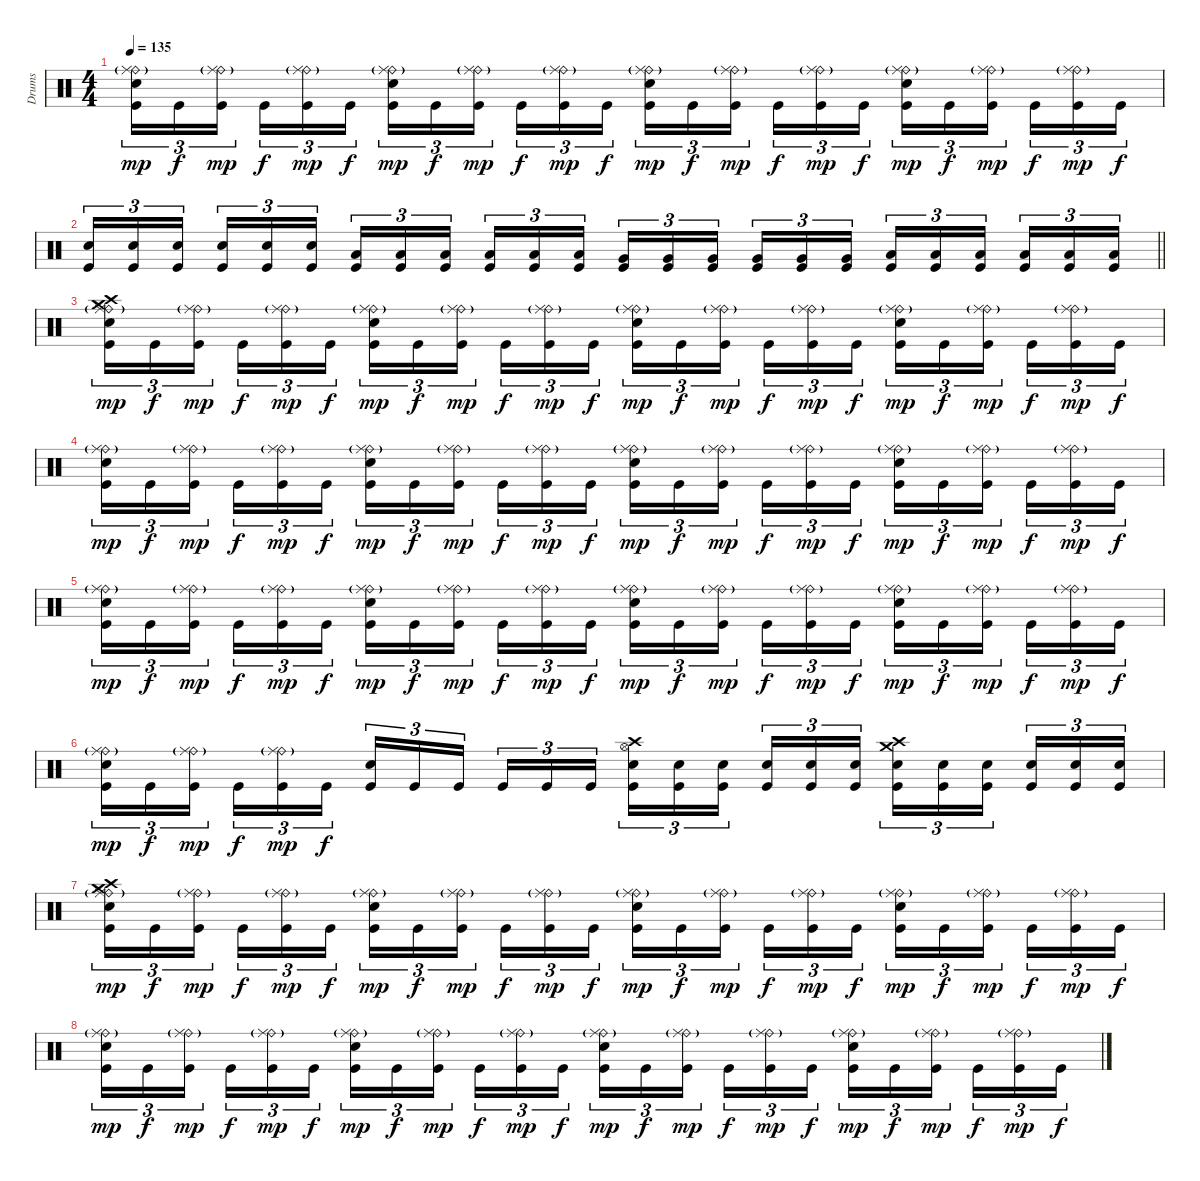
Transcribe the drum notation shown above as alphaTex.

\track ("Drums" "Drums") {instrument percussion}
\staff {score}
\articulation defaults
\ts (4 4)
\tempo 135
\clef neutral
\ks c
("Ride (bell)" "Ride (middle)"{g} "Electric Snare (hit)" "Kick (hit)").16{tu (3 2) dy mp} "Kick (hit)".16{tu (3 2) dy f} ("Ride (bell)" "Ride (middle)"{g} "Kick (hit)").16{tu (3 2) dy mp beam splitsecondary} "Kick (hit)".16{tu (3 2) dy f} ("Ride (bell)" "Ride (middle)"{g} "Kick (hit)").16{tu (3 2) dy mp} "Kick (hit)".16{tu (3 2) dy f} ("Ride (bell)" "Ride (middle)"{g} "Electric Snare (hit)" "Kick (hit)").16{tu (3 2) dy mp} "Kick (hit)".16{tu (3 2) dy f} ("Ride (bell)" "Ride (middle)"{g} "Kick (hit)").16{tu (3 2) dy mp beam splitsecondary} "Kick (hit)".16{tu (3 2) dy f} ("Ride (bell)" "Ride (middle)"{g} "Kick (hit)").16{tu (3 2) dy mp} "Kick (hit)".16{tu (3 2) dy f} ("Ride (bell)" "Ride (middle)"{g} "Electric Snare (hit)" "Kick (hit)").16{tu (3 2) dy mp} "Kick (hit)".16{tu (3 2) dy f} ("Ride (bell)" "Ride (middle)"{g} "Kick (hit)").16{tu (3 2) dy mp beam splitsecondary} "Kick (hit)".16{tu (3 2) dy f} ("Ride (bell)" "Ride (middle)"{g} "Kick (hit)").16{tu (3 2) dy mp} "Kick (hit)".16{tu (3 2) dy f} ("Ride (bell)" "Ride (middle)"{g} "Electric Snare (hit)" "Kick (hit)").16{tu (3 2) dy mp} "Kick (hit)".16{tu (3 2) dy f} ("Ride (bell)" "Ride (middle)"{g} "Kick (hit)").16{tu (3 2) dy mp beam splitsecondary} "Kick (hit)".16{tu (3 2) dy f} ("Ride (bell)" "Ride (middle)"{g} "Kick (hit)").16{tu (3 2) dy mp} "Kick (hit)".16{tu (3 2) dy f} |
\barLineRight lightlight
("Electric Snare (hit)" "Kick (hit)").16{tu (3 2)} ("Electric Snare (hit)" "Kick (hit)").16{tu (3 2)} ("Electric Snare (hit)" "Kick (hit)").16{tu (3 2) beam splitsecondary} ("Electric Snare (hit)" "Kick (hit)").16{tu (3 2)} ("Electric Snare (hit)" "Kick (hit)").16{tu (3 2)} ("Electric Snare (hit)" "Kick (hit)").16{tu (3 2)} ("Low Tom (hit)" "Kick (hit)").16{tu (3 2)} ("Low Tom (hit)" "Kick (hit)").16{tu (3 2)} ("Low Tom (hit)" "Kick (hit)").16{tu (3 2) beam splitsecondary} ("Low Tom (hit)" "Kick (hit)").16{tu (3 2)} ("Low Tom (hit)" "Kick (hit)").16{tu (3 2)} ("Low Tom (hit)" "Kick (hit)").16{tu (3 2)} ("Very Low Tom (hit)" "Kick (hit)").16{tu (3 2)} ("Very Low Tom (hit)" "Kick (hit)").16{tu (3 2)} ("Very Low Tom (hit)" "Kick (hit)").16{tu (3 2) beam splitsecondary} ("Very Low Tom (hit)" "Kick (hit)").16{tu (3 2)} ("Very Low Tom (hit)" "Kick (hit)").16{tu (3 2)} ("Very Low Tom (hit)" "Kick (hit)").16{tu (3 2)} ("Low Floor Tom (hit)" "Kick (hit)").16{tu (3 2)} ("Low Floor Tom (hit)" "Kick (hit)").16{tu (3 2)} ("Low Floor Tom (hit)" "Kick (hit)").16{tu (3 2) beam splitsecondary} ("Low Floor Tom (hit)" "Kick (hit)").16{tu (3 2)} ("Low Floor Tom (hit)" "Kick (hit)").16{tu (3 2)} ("Low Floor Tom (hit)" "Kick (hit)").16{tu (3 2)} |
\section ("" "")
("Crash high (hit)" "Ride (bell)" "Ride (middle)"{g} "Crash medium (hit)" "Electric Snare (hit)" "Kick (hit)").16{tu (3 2) dy mp} "Kick (hit)".16{tu (3 2) dy f} ("Ride (bell)" "Ride (middle)"{g} "Kick (hit)").16{tu (3 2) dy mp beam splitsecondary} "Kick (hit)".16{tu (3 2) dy f} ("Ride (bell)" "Ride (middle)"{g} "Kick (hit)").16{tu (3 2) dy mp} "Kick (hit)".16{tu (3 2) dy f} ("Ride (bell)" "Ride (middle)"{g} "Electric Snare (hit)" "Kick (hit)").16{tu (3 2) dy mp} "Kick (hit)".16{tu (3 2) dy f} ("Ride (bell)" "Ride (middle)"{g} "Kick (hit)").16{tu (3 2) dy mp beam splitsecondary} "Kick (hit)".16{tu (3 2) dy f} ("Ride (bell)" "Ride (middle)"{g} "Kick (hit)").16{tu (3 2) dy mp} "Kick (hit)".16{tu (3 2) dy f} ("Ride (bell)" "Ride (middle)"{g} "Electric Snare (hit)" "Kick (hit)").16{tu (3 2) dy mp} "Kick (hit)".16{tu (3 2) dy f} ("Ride (bell)" "Ride (middle)"{g} "Kick (hit)").16{tu (3 2) dy mp beam splitsecondary} "Kick (hit)".16{tu (3 2) dy f} ("Ride (bell)" "Ride (middle)"{g} "Kick (hit)").16{tu (3 2) dy mp} "Kick (hit)".16{tu (3 2) dy f} ("Ride (bell)" "Ride (middle)"{g} "Electric Snare (hit)" "Kick (hit)").16{tu (3 2) dy mp} "Kick (hit)".16{tu (3 2) dy f} ("Ride (bell)" "Ride (middle)"{g} "Kick (hit)").16{tu (3 2) dy mp beam splitsecondary} "Kick (hit)".16{tu (3 2) dy f} ("Ride (bell)" "Ride (middle)"{g} "Kick (hit)").16{tu (3 2) dy mp} "Kick (hit)".16{tu (3 2) dy f} |
("Ride (bell)" "Ride (middle)"{g} "Electric Snare (hit)" "Kick (hit)").16{tu (3 2) dy mp} "Kick (hit)".16{tu (3 2) dy f} ("Ride (bell)" "Ride (middle)"{g} "Kick (hit)").16{tu (3 2) dy mp beam splitsecondary} "Kick (hit)".16{tu (3 2) dy f} ("Ride (bell)" "Ride (middle)"{g} "Kick (hit)").16{tu (3 2) dy mp} "Kick (hit)".16{tu (3 2) dy f} ("Ride (bell)" "Ride (middle)"{g} "Electric Snare (hit)" "Kick (hit)").16{tu (3 2) dy mp} "Kick (hit)".16{tu (3 2) dy f} ("Ride (bell)" "Ride (middle)"{g} "Kick (hit)").16{tu (3 2) dy mp beam splitsecondary} "Kick (hit)".16{tu (3 2) dy f} ("Ride (bell)" "Ride (middle)"{g} "Kick (hit)").16{tu (3 2) dy mp} "Kick (hit)".16{tu (3 2) dy f} ("Ride (bell)" "Ride (middle)"{g} "Electric Snare (hit)" "Kick (hit)").16{tu (3 2) dy mp} "Kick (hit)".16{tu (3 2) dy f} ("Ride (bell)" "Ride (middle)"{g} "Kick (hit)").16{tu (3 2) dy mp beam splitsecondary} "Kick (hit)".16{tu (3 2) dy f} ("Ride (bell)" "Ride (middle)"{g} "Kick (hit)").16{tu (3 2) dy mp} "Kick (hit)".16{tu (3 2) dy f} ("Ride (bell)" "Ride (middle)"{g} "Electric Snare (hit)" "Kick (hit)").16{tu (3 2) dy mp} "Kick (hit)".16{tu (3 2) dy f} ("Ride (bell)" "Ride (middle)"{g} "Kick (hit)").16{tu (3 2) dy mp beam splitsecondary} "Kick (hit)".16{tu (3 2) dy f} ("Ride (bell)" "Ride (middle)"{g} "Kick (hit)").16{tu (3 2) dy mp} "Kick (hit)".16{tu (3 2) dy f} |
("Ride (bell)" "Ride (middle)"{g} "Electric Snare (hit)" "Kick (hit)").16{tu (3 2) dy mp} "Kick (hit)".16{tu (3 2) dy f} ("Ride (bell)" "Ride (middle)"{g} "Kick (hit)").16{tu (3 2) dy mp beam splitsecondary} "Kick (hit)".16{tu (3 2) dy f} ("Ride (bell)" "Ride (middle)"{g} "Kick (hit)").16{tu (3 2) dy mp} "Kick (hit)".16{tu (3 2) dy f} ("Ride (bell)" "Ride (middle)"{g} "Electric Snare (hit)" "Kick (hit)").16{tu (3 2) dy mp} "Kick (hit)".16{tu (3 2) dy f} ("Ride (bell)" "Ride (middle)"{g} "Kick (hit)").16{tu (3 2) dy mp beam splitsecondary} "Kick (hit)".16{tu (3 2) dy f} ("Ride (bell)" "Ride (middle)"{g} "Kick (hit)").16{tu (3 2) dy mp} "Kick (hit)".16{tu (3 2) dy f} ("Ride (bell)" "Ride (middle)"{g} "Electric Snare (hit)" "Kick (hit)").16{tu (3 2) dy mp} "Kick (hit)".16{tu (3 2) dy f} ("Ride (bell)" "Ride (middle)"{g} "Kick (hit)").16{tu (3 2) dy mp beam splitsecondary} "Kick (hit)".16{tu (3 2) dy f} ("Ride (bell)" "Ride (middle)"{g} "Kick (hit)").16{tu (3 2) dy mp} "Kick (hit)".16{tu (3 2) dy f} ("Ride (bell)" "Ride (middle)"{g} "Electric Snare (hit)" "Kick (hit)").16{tu (3 2) dy mp} "Kick (hit)".16{tu (3 2) dy f} ("Ride (bell)" "Ride (middle)"{g} "Kick (hit)").16{tu (3 2) dy mp beam splitsecondary} "Kick (hit)".16{tu (3 2) dy f} ("Ride (bell)" "Ride (middle)"{g} "Kick (hit)").16{tu (3 2) dy mp} "Kick (hit)".16{tu (3 2) dy f} |
("Ride (bell)" "Ride (middle)"{g} "Electric Snare (hit)" "Kick (hit)").16{tu (3 2) dy mp} "Kick (hit)".16{tu (3 2) dy f} ("Ride (bell)" "Ride (middle)"{g} "Kick (hit)").16{tu (3 2) dy mp beam splitsecondary} "Kick (hit)".16{tu (3 2) dy f} ("Ride (bell)" "Ride (middle)"{g} "Kick (hit)").16{tu (3 2) dy mp} "Kick (hit)".16{tu (3 2) dy f} ("Electric Snare (hit)" "Kick (hit)").16{tu (3 2)} "Kick (hit)".16{tu (3 2)} "Kick (hit)".16{tu (3 2) beam splitsecondary} "Kick (hit)".16{tu (3 2)} "Kick (hit)".16{tu (3 2)} "Kick (hit)".16{tu (3 2)} ("Hi-Hat (open)" "Crash high (hit)" "Electric Snare (hit)" "Kick (hit)").16{tu (3 2)} ("Electric Snare (hit)" "Kick (hit)").16{tu (3 2)} ("Electric Snare (hit)" "Kick (hit)").16{tu (3 2) beam splitsecondary} ("Electric Snare (hit)" "Kick (hit)").16{tu (3 2)} ("Electric Snare (hit)" "Kick (hit)").16{tu (3 2)} ("Electric Snare (hit)" "Kick (hit)").16{tu (3 2)} ("Crash medium (hit)" "Crash high (hit)" "Electric Snare (hit)" "Kick (hit)").16{tu (3 2)} ("Electric Snare (hit)" "Kick (hit)").16{tu (3 2)} ("Electric Snare (hit)" "Kick (hit)").16{tu (3 2) beam splitsecondary} ("Electric Snare (hit)" "Kick (hit)").16{tu (3 2)} ("Electric Snare (hit)" "Kick (hit)").16{tu (3 2)} ("Electric Snare (hit)" "Kick (hit)").16{tu (3 2)} |
("Crash high (hit)" "Ride (bell)" "Ride (middle)"{g} "Crash medium (hit)" "Electric Snare (hit)" "Kick (hit)").16{tu (3 2) dy mp} "Kick (hit)".16{tu (3 2) dy f} ("Ride (bell)" "Ride (middle)"{g} "Kick (hit)").16{tu (3 2) dy mp beam splitsecondary} "Kick (hit)".16{tu (3 2) dy f} ("Ride (bell)" "Ride (middle)"{g} "Kick (hit)").16{tu (3 2) dy mp} "Kick (hit)".16{tu (3 2) dy f} ("Ride (bell)" "Ride (middle)"{g} "Electric Snare (hit)" "Kick (hit)").16{tu (3 2) dy mp} "Kick (hit)".16{tu (3 2) dy f} ("Ride (bell)" "Ride (middle)"{g} "Kick (hit)").16{tu (3 2) dy mp beam splitsecondary} "Kick (hit)".16{tu (3 2) dy f} ("Ride (bell)" "Ride (middle)"{g} "Kick (hit)").16{tu (3 2) dy mp} "Kick (hit)".16{tu (3 2) dy f} ("Ride (bell)" "Ride (middle)"{g} "Electric Snare (hit)" "Kick (hit)").16{tu (3 2) dy mp} "Kick (hit)".16{tu (3 2) dy f} ("Ride (bell)" "Ride (middle)"{g} "Kick (hit)").16{tu (3 2) dy mp beam splitsecondary} "Kick (hit)".16{tu (3 2) dy f} ("Ride (bell)" "Ride (middle)"{g} "Kick (hit)").16{tu (3 2) dy mp} "Kick (hit)".16{tu (3 2) dy f} ("Ride (bell)" "Ride (middle)"{g} "Electric Snare (hit)" "Kick (hit)").16{tu (3 2) dy mp} "Kick (hit)".16{tu (3 2) dy f} ("Ride (bell)" "Ride (middle)"{g} "Kick (hit)").16{tu (3 2) dy mp beam splitsecondary} "Kick (hit)".16{tu (3 2) dy f} ("Ride (bell)" "Ride (middle)"{g} "Kick (hit)").16{tu (3 2) dy mp} "Kick (hit)".16{tu (3 2) dy f} |
("Ride (bell)" "Ride (middle)"{g} "Electric Snare (hit)" "Kick (hit)").16{tu (3 2) dy mp} "Kick (hit)".16{tu (3 2) dy f} ("Ride (bell)" "Ride (middle)"{g} "Kick (hit)").16{tu (3 2) dy mp beam splitsecondary} "Kick (hit)".16{tu (3 2) dy f} ("Ride (bell)" "Ride (middle)"{g} "Kick (hit)").16{tu (3 2) dy mp} "Kick (hit)".16{tu (3 2) dy f} ("Ride (bell)" "Ride (middle)"{g} "Electric Snare (hit)" "Kick (hit)").16{tu (3 2) dy mp} "Kick (hit)".16{tu (3 2) dy f} ("Ride (bell)" "Ride (middle)"{g} "Kick (hit)").16{tu (3 2) dy mp beam splitsecondary} "Kick (hit)".16{tu (3 2) dy f} ("Ride (bell)" "Ride (middle)"{g} "Kick (hit)").16{tu (3 2) dy mp} "Kick (hit)".16{tu (3 2) dy f} ("Ride (bell)" "Ride (middle)"{g} "Electric Snare (hit)" "Kick (hit)").16{tu (3 2) dy mp} "Kick (hit)".16{tu (3 2) dy f} ("Ride (bell)" "Ride (middle)"{g} "Kick (hit)").16{tu (3 2) dy mp beam splitsecondary} "Kick (hit)".16{tu (3 2) dy f} ("Ride (bell)" "Ride (middle)"{g} "Kick (hit)").16{tu (3 2) dy mp} "Kick (hit)".16{tu (3 2) dy f} ("Ride (bell)" "Ride (middle)"{g} "Electric Snare (hit)" "Kick (hit)").16{tu (3 2) dy mp} "Kick (hit)".16{tu (3 2) dy f} ("Ride (bell)" "Ride (middle)"{g} "Kick (hit)").16{tu (3 2) dy mp beam splitsecondary} "Kick (hit)".16{tu (3 2) dy f} ("Ride (bell)" "Ride (middle)"{g} "Kick (hit)").16{tu (3 2) dy mp} "Kick (hit)".16{tu (3 2) dy f}
